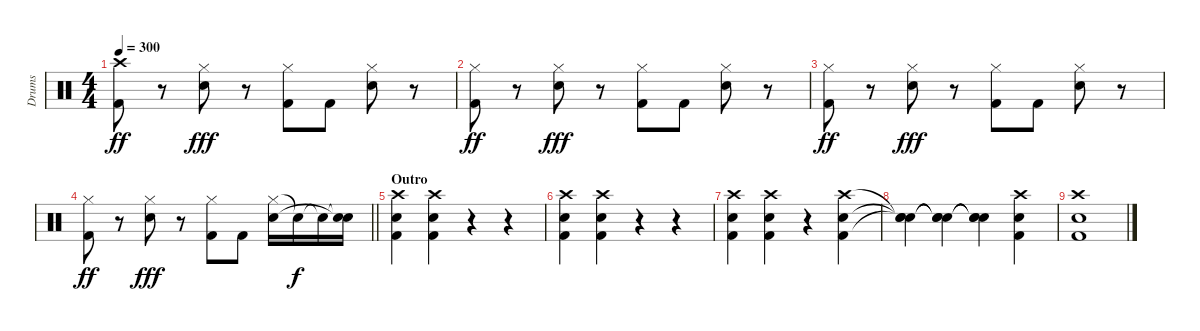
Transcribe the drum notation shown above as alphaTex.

\track ("Drums" "Drums") {instrument percussion}
\staff {score}
\articulation defaults
\ts (4 4)
\tempo 300
\clef neutral
\ks c
("Crash high (hit)" "Kick (hit) 2").8{dy ff} r.8 ("Hi-Hat (closed)" "Snare (hit) 2").8{dy fff} r.8 ("Hi-Hat (closed)" "Kick (hit) 2").8 "Kick (hit) 2".8 ("Hi-Hat (closed)" "Snare (hit) 2").8 r.8 |
("Hi-Hat (closed)" "Kick (hit) 2").8{dy ff} r.8 ("Hi-Hat (closed)" "Snare (hit) 2").8{dy fff} r.8 ("Hi-Hat (closed)" "Kick (hit) 2").8 "Kick (hit) 2".8 ("Hi-Hat (closed)" "Snare (hit) 2").8 r.8 |
("Hi-Hat (closed)" "Kick (hit) 2").8{dy ff} r.8 ("Hi-Hat (closed)" "Snare (hit) 2").8{dy fff} r.8 ("Hi-Hat (closed)" "Kick (hit) 2").8 "Kick (hit) 2".8 ("Hi-Hat (closed)" "Snare (hit) 2").8 r.8 |
\barLineRight lightlight
("Hi-Hat (closed)" "Kick (hit) 2").8{dy ff} r.8 ("Hi-Hat (closed)" "Snare (hit) 2").8{dy fff} r.8 ("Hi-Hat (closed)" "Kick (hit) 2").8 "Kick (hit) 2".8 ("Hi-Hat (closed)" "Snare (hit) 2").16 "Snare (hit)"{t}.16{dy f} "Snare (hit)"{t}.16 ("Snare (hit)"{t} "Snare (hit) 2"{t}).16 |
\section ("" "Outro")
("Kick (hit) 2" "Crash high (hit)" "Snare (hit) 2").4 ("Kick (hit) 2" "Crash high (hit)" "Snare (hit) 2").4 r.4 r.4 |
("Kick (hit) 2" "Crash high (hit)" "Snare (hit) 2").4 ("Kick (hit) 2" "Crash high (hit)" "Snare (hit) 2").4 r.4 r.4 |
("Kick (hit) 2" "Crash high (hit)" "Snare (hit) 2").4 ("Kick (hit) 2" "Crash high (hit)" "Snare (hit) 2").4 r.4 ("Snare (hit) 2" "Crash high (hit)" "Kick (hit) 2").4 |
("Snare (hit)"{t} "Snare (hit)"{t} "Snare (hit)"{t}).4 ("Snare (hit)"{t} "Snare (hit)"{t} "Snare (hit)"{t}).4 ("Snare (hit)"{t} "Snare (hit)"{t} "Snare (hit)"{t}).4 ("Snare (hit) 2" "Crash high (hit)" "Kick (hit) 2").4 |
("Kick (hit) 2" "Snare (hit) 2" "Crash high (hit)").1
